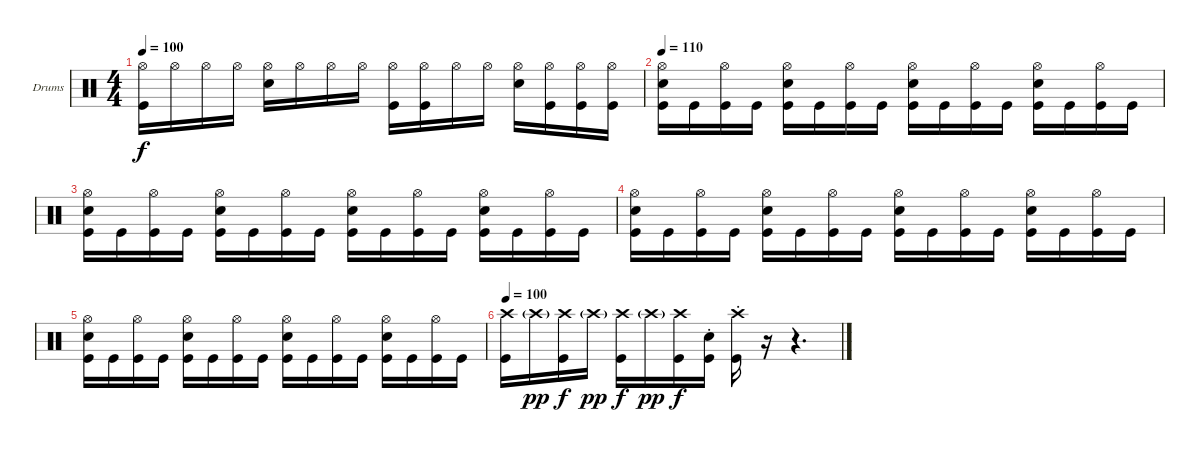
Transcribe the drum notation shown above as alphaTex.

\bracketExtendMode groupsimilarinstruments
\firstSystemTrackNameOrientation horizontal
\otherSystemsTrackNameOrientation horizontal
\track ("Drumkit" "Drums") {instrument percussion}
\staff {score}
\articulation defaults
\ts (4 4)
\tempo 100
\clef neutral
\ks c
("Hi-Hat (open)" "Kick (hit)").16{dy f} "Hi-Hat (open)".16 "Hi-Hat (open)".16 "Hi-Hat (open)".16 ("Hi-Hat (open)" "Snare (hit) 2").16 "Hi-Hat (open)".16 "Hi-Hat (open)".16 "Hi-Hat (open)".16 ("Hi-Hat (open)" "Kick (hit)").16 ("Hi-Hat (open)" "Kick (hit)").16 "Hi-Hat (open)".16 "Hi-Hat (open)".16 ("Hi-Hat (open)" "Snare (hit) 2").16 ("Hi-Hat (open)" "Kick (hit)").16 ("Hi-Hat (open)" "Kick (hit)").16 ("Hi-Hat (open)" "Kick (hit)").16 |
\tempo 110
("Hi-Hat (open)" "Snare (hit) 2" "Kick (hit)").16 "Kick (hit)".16 ("Hi-Hat (open)" "Kick (hit)").16 "Kick (hit)".16 ("Hi-Hat (open)" "Snare (hit) 2" "Kick (hit)").16 "Kick (hit)".16 ("Hi-Hat (open)" "Kick (hit)").16 "Kick (hit)".16 ("Hi-Hat (open)" "Snare (hit) 2" "Kick (hit)").16 "Kick (hit)".16 ("Hi-Hat (open)" "Kick (hit)").16 "Kick (hit)".16 ("Hi-Hat (open)" "Snare (hit) 2" "Kick (hit)").16 "Kick (hit)".16 ("Hi-Hat (open)" "Kick (hit)").16 "Kick (hit)".16 |
("Hi-Hat (open)" "Snare (hit) 2" "Kick (hit)").16 "Kick (hit)".16 ("Hi-Hat (open)" "Kick (hit)").16 "Kick (hit)".16 ("Hi-Hat (open)" "Snare (hit) 2" "Kick (hit)").16 "Kick (hit)".16 ("Hi-Hat (open)" "Kick (hit)").16 "Kick (hit)".16 ("Hi-Hat (open)" "Snare (hit) 2" "Kick (hit)").16 "Kick (hit)".16 ("Hi-Hat (open)" "Kick (hit)").16 "Kick (hit)".16 ("Hi-Hat (open)" "Snare (hit) 2" "Kick (hit)").16 "Kick (hit)".16 ("Hi-Hat (open)" "Kick (hit)").16 "Kick (hit)".16 |
("Hi-Hat (open)" "Snare (hit) 2" "Kick (hit)").16 "Kick (hit)".16 ("Hi-Hat (open)" "Kick (hit)").16 "Kick (hit)".16 ("Hi-Hat (open)" "Snare (hit) 2" "Kick (hit)").16 "Kick (hit)".16 ("Hi-Hat (open)" "Kick (hit)").16 "Kick (hit)".16 ("Hi-Hat (open)" "Snare (hit) 2" "Kick (hit)").16 "Kick (hit)".16 ("Hi-Hat (open)" "Kick (hit)").16 "Kick (hit)".16 ("Hi-Hat (open)" "Snare (hit) 2" "Kick (hit)").16 "Kick (hit)".16 ("Hi-Hat (open)" "Kick (hit)").16 "Kick (hit)".16 |
("Hi-Hat (open)" "Snare (hit) 2" "Kick (hit)").16 "Kick (hit)".16 ("Hi-Hat (open)" "Kick (hit)").16 "Kick (hit)".16 ("Hi-Hat (open)" "Snare (hit) 2" "Kick (hit)").16 "Kick (hit)".16 ("Hi-Hat (open)" "Kick (hit)").16 "Kick (hit)".16 ("Hi-Hat (open)" "Snare (hit) 2" "Kick (hit)").16 "Kick (hit)".16 ("Hi-Hat (open)" "Kick (hit)").16 "Kick (hit)".16 ("Hi-Hat (open)" "Snare (hit) 2" "Kick (hit)").16 "Kick (hit)".16 ("Hi-Hat (open)" "Kick (hit)").16 "Kick (hit)".16 |
\tempo 100
("Crash high (hit)" "Kick (hit)").16 "Crash high (hit)"{g}.16{dy pp} ("Crash high (hit)" "Kick (hit)").16{dy f} "Crash high (hit)"{g}.16{dy pp} ("Crash high (hit)" "Kick (hit)").16{dy f} "Crash high (hit)"{g}.16{dy pp} ("Crash high (hit)" "Kick (hit)").16{dy f} ("Snare (hit) 2"{st} "Kick (hit)").16 ("Crash high (hit)"{st} "Kick (hit)").16 r.16 r.4{d}
